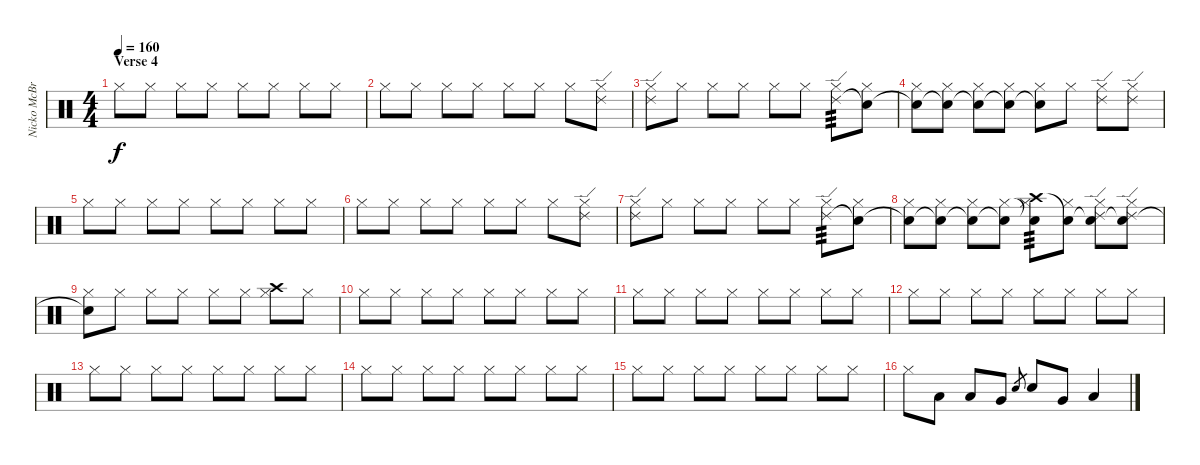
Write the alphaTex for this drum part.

\track ("Nicko McBrain" "Nicko McBr") {instrument percussion}
\staff {score}
\articulation defaults
\ts (4 4)
\section ("" "Verse 4")
\tempo 160
\clef neutral
\ks c "Hi-Hat (closed)".8{dy f} "Hi-Hat (closed)".8 "Hi-Hat (closed)".8 "Hi-Hat (closed)".8 "Hi-Hat (closed)".8 "Hi-Hat (closed)".8 "Hi-Hat (closed)".8 "Hi-Hat (closed)".8
|
"Hi-Hat (closed)".8 "Hi-Hat (closed)".8 "Hi-Hat (closed)".8 "Hi-Hat (closed)".8 "Hi-Hat (closed)".8 "Hi-Hat (closed)".8 "Hi-Hat (closed)".8 ("Ride (edge) 2" "Hi-Hat (closed)").8 |
("Ride (edge) 2" "Hi-Hat (closed)").8 "Hi-Hat (closed)".8 "Hi-Hat (closed)".8 "Hi-Hat (closed)".8 "Hi-Hat (closed)".8 "Hi-Hat (closed)".8 ("Ride (edge) 2" "Hi-Hat (closed)").8{tp 3} ("Snare (hit)"{t} "Hi-Hat (closed)").8 |
("Snare (hit)"{t} "Hi-Hat (closed)").8 ("Snare (hit)"{t} "Hi-Hat (closed)").8 ("Snare (hit)"{t} "Hi-Hat (closed)").8 ("Snare (hit)"{t} "Hi-Hat (closed)").8 ("Snare (hit)"{t} "Hi-Hat (closed)").8 "Hi-Hat (closed)".8 ("Ride (edge) 2" "Hi-Hat (closed)").8 ("Ride (edge) 2" "Hi-Hat (closed)").8 |
"Hi-Hat (closed)".8 "Hi-Hat (closed)".8 "Hi-Hat (closed)".8 "Hi-Hat (closed)".8 "Hi-Hat (closed)".8 "Hi-Hat (closed)".8 "Hi-Hat (closed)".8 "Hi-Hat (closed)".8 |
"Hi-Hat (closed)".8 "Hi-Hat (closed)".8 "Hi-Hat (closed)".8 "Hi-Hat (closed)".8 "Hi-Hat (closed)".8 "Hi-Hat (closed)".8 "Hi-Hat (closed)".8 ("Ride (edge) 2" "Hi-Hat (closed)").8 |
("Ride (edge) 2" "Hi-Hat (closed)").8 "Hi-Hat (closed)".8 "Hi-Hat (closed)".8 "Hi-Hat (closed)".8 "Hi-Hat (closed)".8 "Hi-Hat (closed)".8 ("Ride (edge) 2" "Hi-Hat (closed)").8{tp 3} ("Snare (hit)"{t} "Hi-Hat (closed)").8 |
("Snare (hit)"{t} "Hi-Hat (closed)").8 ("Snare (hit)"{t} "Hi-Hat (closed)").8 ("Snare (hit)"{t} "Hi-Hat (closed)").8 ("Snare (hit)"{t} "Hi-Hat (closed)").8 ("Crash high (hit)" "Snare (hit)"{t} "Hi-Hat (closed)").8{tp 3} ("Snare (hit)"{t} "Hi-Hat (closed)").8 ("Snare (hit)"{t} "Ride (edge) 2" "Hi-Hat (closed)").8 ("Snare (hit)"{t} "Ride (edge) 2" "Hi-Hat (closed)").8 |
("Snare (hit)"{t} "Hi-Hat (closed)").8 "Hi-Hat (closed)".8 "Hi-Hat (closed)".8 "Hi-Hat (closed)".8 "Hi-Hat (closed)".8 "Hi-Hat (closed)".8 ("Crash high (hit)" "Hi-Hat (closed)").8 "Hi-Hat (closed)".8 |
"Hi-Hat (closed)".8 "Hi-Hat (closed)".8 "Hi-Hat (closed)".8 "Hi-Hat (closed)".8 "Hi-Hat (closed)".8 "Hi-Hat (closed)".8 "Hi-Hat (closed)".8 "Hi-Hat (closed)".8 |
"Hi-Hat (closed)".8 "Hi-Hat (closed)".8 "Hi-Hat (closed)".8 "Hi-Hat (closed)".8 "Hi-Hat (closed)".8 "Hi-Hat (closed)".8 "Hi-Hat (closed)".8 "Hi-Hat (closed)".8 |
"Hi-Hat (closed)".8 "Hi-Hat (closed)".8 "Hi-Hat (closed)".8 "Hi-Hat (closed)".8 "Hi-Hat (closed)".8 "Hi-Hat (closed)".8 "Hi-Hat (closed)".8 "Hi-Hat (closed)".8 |
"Hi-Hat (closed)".8 "Hi-Hat (closed)".8 "Hi-Hat (closed)".8 "Hi-Hat (closed)".8 "Hi-Hat (closed)".8 "Hi-Hat (closed)".8 "Hi-Hat (closed)".8 "Hi-Hat (closed)".8 |
"Hi-Hat (closed)".8 "Hi-Hat (closed)".8 "Hi-Hat (closed)".8 "Hi-Hat (closed)".8 "Hi-Hat (closed)".8 "Hi-Hat (closed)".8 "Hi-Hat (closed)".8 "Hi-Hat (closed)".8 |
"Hi-Hat (closed)".8 "Hi-Hat (closed)".8 "Hi-Hat (closed)".8 "Hi-Hat (closed)".8 "Hi-Hat (closed)".8 "Hi-Hat (closed)".8 "Hi-Hat (closed)".8 "Hi-Hat (closed)".8 |
"Hi-Hat (closed)".8 "Low Tom (hit)".8 "Low Tom (hit)".8 "Very Low Tom (hit)".8 "Electric Snare (hit)".8{gr} "Electric Snare (hit)".8 "Very Low Tom (hit)".8 "Low Floor Tom (hit)".4
